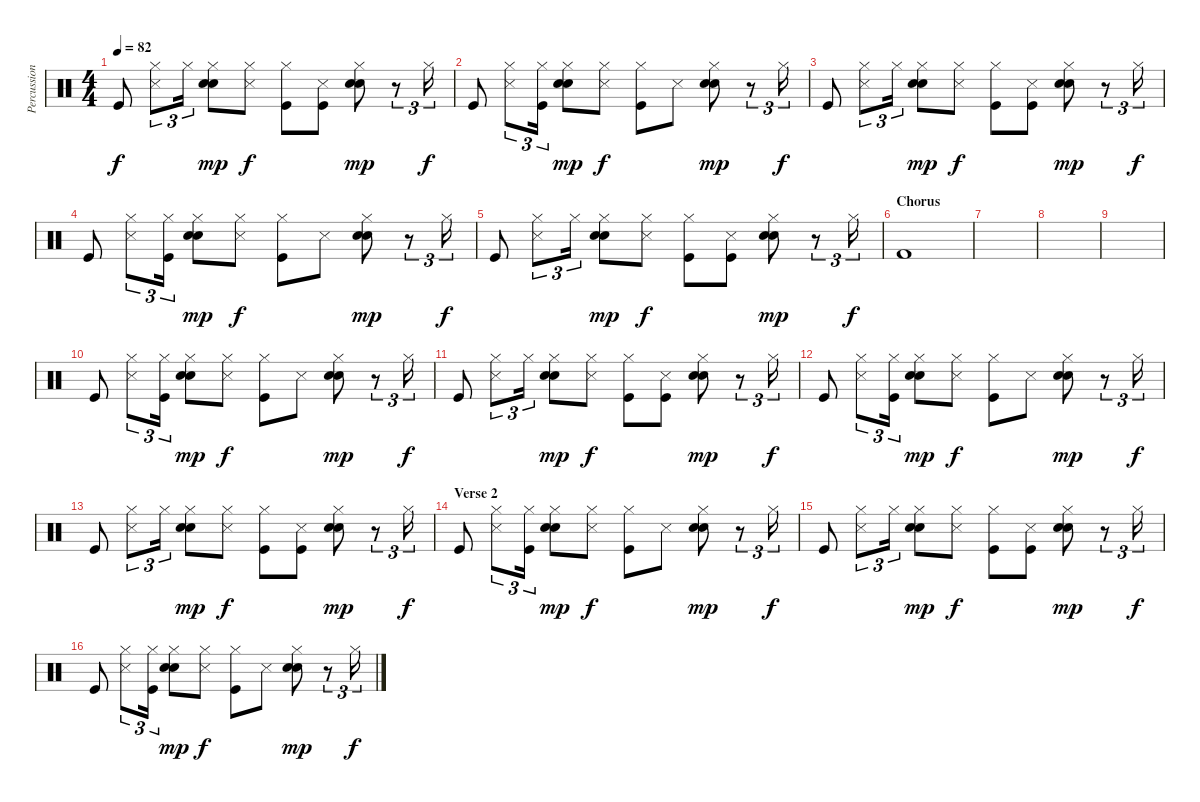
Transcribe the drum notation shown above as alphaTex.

\track ("Percussion" "Percussion") {instrument percussion}
\staff {score}
\articulation defaults
\ts (4 4)
\tempo 82
\clef neutral
\ks c "Kick (hit)".8{dy f}
("Hi-Hat (closed)" "Snare (side stick) 3").8{tu (3 2)} "Hi-Hat (closed)".16{tu (3 2)} ("Hi-Hat (closed)" "Hand Clap (hit)" "Electric Snare (hit)").8{dy mp} ("Hi-Hat (closed)" "Snare (side stick) 3").8{dy f} ("Hi-Hat (closed)" "Kick (hit)").8 ("Snare (side stick) 3" "Kick (hit)").8 ("Hi-Hat (closed)" "Hand Clap (hit)" "Electric Snare (hit)").8{dy mp} r.8{tu (3 2)} "Hi-Hat (closed)".16{tu (3 2) dy f} |
"Kick (hit)".8{volume 13} ("Hi-Hat (closed)" "Snare (side stick) 3").8{tu (3 2)} ("Hi-Hat (closed)" "Kick (hit)").16{tu (3 2)} ("Hi-Hat (closed)" "Hand Clap (hit)" "Electric Snare (hit)").8{dy mp} ("Hi-Hat (closed)" "Snare (side stick) 3").8{dy f} ("Hi-Hat (closed)" "Kick (hit)").8 "Snare (side stick) 3".8 ("Hi-Hat (closed)" "Hand Clap (hit)" "Electric Snare (hit)").8{dy mp} r.8{tu (3 2)} "Hi-Hat (closed)".16{tu (3 2) dy f} |
"Kick (hit)".8 ("Hi-Hat (closed)" "Snare (side stick) 3").8{tu (3 2)} "Hi-Hat (closed)".16{tu (3 2)} ("Hi-Hat (closed)" "Hand Clap (hit)" "Electric Snare (hit)").8{dy mp} ("Hi-Hat (closed)" "Snare (side stick) 3").8{dy f} ("Hi-Hat (closed)" "Kick (hit)").8 ("Snare (side stick) 3" "Kick (hit)").8 ("Hi-Hat (closed)" "Hand Clap (hit)" "Electric Snare (hit)").8{dy mp} r.8{tu (3 2)} "Hi-Hat (closed)".16{tu (3 2) dy f} |
"Kick (hit)".8{volume 13} ("Hi-Hat (closed)" "Snare (side stick) 3").8{tu (3 2)} ("Hi-Hat (closed)" "Kick (hit)").16{tu (3 2)} ("Hi-Hat (closed)" "Hand Clap (hit)" "Electric Snare (hit)").8{dy mp} ("Hi-Hat (closed)" "Snare (side stick) 3").8{dy f} ("Hi-Hat (closed)" "Kick (hit)").8 "Snare (side stick) 3".8 ("Hi-Hat (closed)" "Hand Clap (hit)" "Electric Snare (hit)").8{dy mp} r.8{tu (3 2)} "Hi-Hat (closed)".16{tu (3 2) dy f} |
"Kick (hit)".8 ("Hi-Hat (closed)" "Snare (side stick) 3").8{tu (3 2)} "Hi-Hat (closed)".16{tu (3 2)} ("Hi-Hat (closed)" "Hand Clap (hit)" "Electric Snare (hit)").8{dy mp} ("Hi-Hat (closed)" "Snare (side stick) 3").8{dy f} ("Hi-Hat (closed)" "Kick (hit)").8 ("Snare (side stick) 3" "Kick (hit)").8 ("Hi-Hat (closed)" "Hand Clap (hit)" "Electric Snare (hit)").8{dy mp} r.8{tu (3 2)} "Hi-Hat (closed)".16{tu (3 2) dy f} |
\section ("" "Chorus")
"Kick (hit) 2".1 |
|
|
|
"Kick (hit)".8 ("Hi-Hat (closed)" "Snare (side stick) 3").8{tu (3 2)} ("Hi-Hat (closed)" "Kick (hit)").16{tu (3 2)} ("Hi-Hat (closed)" "Hand Clap (hit)" "Electric Snare (hit)").8{dy mp} ("Hi-Hat (closed)" "Snare (side stick) 3").8{dy f} ("Hi-Hat (closed)" "Kick (hit)").8 "Snare (side stick) 3".8 ("Hi-Hat (closed)" "Hand Clap (hit)" "Electric Snare (hit)").8{dy mp} r.8{tu (3 2)} "Hi-Hat (closed)".16{tu (3 2) dy f} |
"Kick (hit)".8 ("Hi-Hat (closed)" "Snare (side stick) 3").8{tu (3 2)} "Hi-Hat (closed)".16{tu (3 2)} ("Hi-Hat (closed)" "Hand Clap (hit)" "Electric Snare (hit)").8{dy mp} ("Hi-Hat (closed)" "Snare (side stick) 3").8{dy f} ("Hi-Hat (closed)" "Kick (hit)").8 ("Snare (side stick) 3" "Kick (hit)").8 ("Hi-Hat (closed)" "Hand Clap (hit)" "Electric Snare (hit)").8{dy mp} r.8{tu (3 2)} "Hi-Hat (closed)".16{tu (3 2) dy f} |
"Kick (hit)".8 ("Hi-Hat (closed)" "Snare (side stick) 3").8{tu (3 2)} ("Hi-Hat (closed)" "Kick (hit)").16{tu (3 2)} ("Hi-Hat (closed)" "Hand Clap (hit)" "Electric Snare (hit)").8{dy mp} ("Hi-Hat (closed)" "Snare (side stick) 3").8{dy f} ("Hi-Hat (closed)" "Kick (hit)").8 "Snare (side stick) 3".8 ("Hi-Hat (closed)" "Hand Clap (hit)" "Electric Snare (hit)").8{dy mp} r.8{tu (3 2)} "Hi-Hat (closed)".16{tu (3 2) dy f} |
"Kick (hit)".8 ("Hi-Hat (closed)" "Snare (side stick) 3").8{tu (3 2)} "Hi-Hat (closed)".16{tu (3 2)} ("Hi-Hat (closed)" "Hand Clap (hit)" "Electric Snare (hit)").8{dy mp} ("Hi-Hat (closed)" "Snare (side stick) 3").8{dy f} ("Hi-Hat (closed)" "Kick (hit)").8 ("Snare (side stick) 3" "Kick (hit)").8 ("Hi-Hat (closed)" "Hand Clap (hit)" "Electric Snare (hit)").8{dy mp} r.8{tu (3 2)} "Hi-Hat (closed)".16{tu (3 2) dy f} |
\section ("" "Verse 2")
"Kick (hit)".8{volume 13} ("Hi-Hat (closed)" "Snare (side stick) 3").8{tu (3 2)} ("Hi-Hat (closed)" "Kick (hit)").16{tu (3 2)} ("Hi-Hat (closed)" "Hand Clap (hit)" "Electric Snare (hit)").8{dy mp} ("Hi-Hat (closed)" "Snare (side stick) 3").8{dy f} ("Hi-Hat (closed)" "Kick (hit)").8 "Snare (side stick) 3".8 ("Hi-Hat (closed)" "Hand Clap (hit)" "Electric Snare (hit)").8{dy mp} r.8{tu (3 2)} "Hi-Hat (closed)".16{tu (3 2) dy f} |
"Kick (hit)".8 ("Hi-Hat (closed)" "Snare (side stick) 3").8{tu (3 2)} "Hi-Hat (closed)".16{tu (3 2)} ("Hi-Hat (closed)" "Hand Clap (hit)" "Electric Snare (hit)").8{dy mp} ("Hi-Hat (closed)" "Snare (side stick) 3").8{dy f} ("Hi-Hat (closed)" "Kick (hit)").8 ("Snare (side stick) 3" "Kick (hit)").8 ("Hi-Hat (closed)" "Hand Clap (hit)" "Electric Snare (hit)").8{dy mp} r.8{tu (3 2)} "Hi-Hat (closed)".16{tu (3 2) dy f} |
"Kick (hit)".8{volume 13} ("Hi-Hat (closed)" "Snare (side stick) 3").8{tu (3 2)} ("Hi-Hat (closed)" "Kick (hit)").16{tu (3 2)} ("Hi-Hat (closed)" "Hand Clap (hit)" "Electric Snare (hit)").8{dy mp} ("Hi-Hat (closed)" "Snare (side stick) 3").8{dy f} ("Hi-Hat (closed)" "Kick (hit)").8 "Snare (side stick) 3".8 ("Hi-Hat (closed)" "Hand Clap (hit)" "Electric Snare (hit)").8{dy mp} r.8{tu (3 2)} "Hi-Hat (closed)".16{tu (3 2) dy f}
